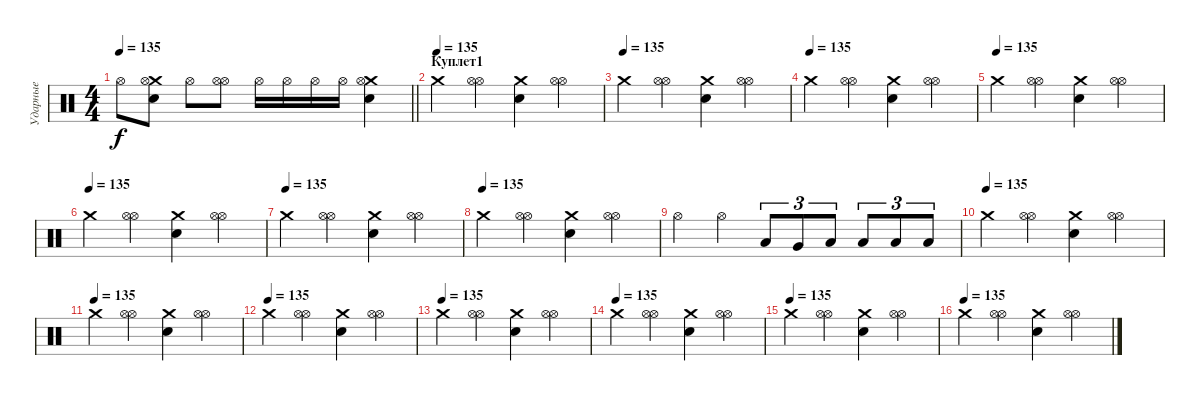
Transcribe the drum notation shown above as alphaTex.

\track ("Ударные" "Ударные") {instrument percussion}
\staff {score}
\articulation defaults
\ts (4 4)
\tempo 135
\clef neutral
\barLineRight lightlight
\ks c "Hi-Hat (open)".8{dy f}
("Crash medium (hit)" "Hi-Hat (open)" "Electric Snare (hit)").8 "Hi-Hat (open)".8 ("Hi-Hat (open)" "Hi-Hat (open)").8 "Hi-Hat (open)".16 "Hi-Hat (open)".16 "Hi-Hat (open)".16 "Hi-Hat (open)".16 ("Crash medium (hit)" "Hi-Hat (open)" "Electric Snare (hit)").4 |
\section ("" "Куплет1")
\tempo (135)
"Crash medium (hit)".4 ("Hi-Hat (open)" "Hi-Hat (open)").4 ("Crash medium (hit)" "Electric Snare (hit)").4 ("Hi-Hat (open)" "Hi-Hat (open)").4 |
\tempo (135)
"Crash medium (hit)".4 ("Hi-Hat (open)" "Hi-Hat (open)").4 ("Crash medium (hit)" "Electric Snare (hit)").4 ("Hi-Hat (open)" "Hi-Hat (open)").4 |
\tempo (135)
"Crash medium (hit)".4 ("Hi-Hat (open)" "Hi-Hat (open)").4 ("Crash medium (hit)" "Electric Snare (hit)").4 ("Hi-Hat (open)" "Hi-Hat (open)").4 |
\tempo (135)
"Crash medium (hit)".4 ("Hi-Hat (open)" "Hi-Hat (open)").4 ("Crash medium (hit)" "Electric Snare (hit)").4 ("Hi-Hat (open)" "Hi-Hat (open)").4 |
\tempo (135)
"Crash medium (hit)".4 ("Hi-Hat (open)" "Hi-Hat (open)").4 ("Crash medium (hit)" "Electric Snare (hit)").4 ("Hi-Hat (open)" "Hi-Hat (open)").4 |
\tempo (135)
"Crash medium (hit)".4 ("Hi-Hat (open)" "Hi-Hat (open)").4 ("Crash medium (hit)" "Electric Snare (hit)").4 ("Hi-Hat (open)" "Hi-Hat (open)").4 |
\tempo (135)
"Crash medium (hit)".4 ("Hi-Hat (open)" "Hi-Hat (open)").4 ("Crash medium (hit)" "Electric Snare (hit)").4 ("Hi-Hat (open)" "Hi-Hat (open)").4 |
"Hi-Hat (open)".4 "Hi-Hat (open)".4 "Low Tom (hit)".8{tu (3 2)} "Very Low Tom (hit)".8{tu (3 2)} "Low Floor Tom (hit)".8{tu (3 2)} "Low Floor Tom (hit)".8{tu (3 2)} "Low Floor Tom (hit)".8{tu (3 2)} "Low Floor Tom (hit)".8{tu (3 2)} |
\tempo (135)
"Crash medium (hit)".4 ("Hi-Hat (open)" "Hi-Hat (open)").4 ("Crash medium (hit)" "Electric Snare (hit)").4 ("Hi-Hat (open)" "Hi-Hat (open)").4 |
\tempo (135)
"Crash medium (hit)".4 ("Hi-Hat (open)" "Hi-Hat (open)").4 ("Crash medium (hit)" "Electric Snare (hit)").4 ("Hi-Hat (open)" "Hi-Hat (open)").4 |
\tempo (135)
"Crash medium (hit)".4 ("Hi-Hat (open)" "Hi-Hat (open)").4 ("Crash medium (hit)" "Electric Snare (hit)").4 ("Hi-Hat (open)" "Hi-Hat (open)").4 |
\tempo (135)
"Crash medium (hit)".4 ("Hi-Hat (open)" "Hi-Hat (open)").4 ("Crash medium (hit)" "Electric Snare (hit)").4 ("Hi-Hat (open)" "Hi-Hat (open)").4 |
\tempo (135)
"Crash medium (hit)".4 ("Hi-Hat (open)" "Hi-Hat (open)").4 ("Crash medium (hit)" "Electric Snare (hit)").4 ("Hi-Hat (open)" "Hi-Hat (open)").4 |
\tempo (135)
"Crash medium (hit)".4 ("Hi-Hat (open)" "Hi-Hat (open)").4 ("Crash medium (hit)" "Electric Snare (hit)").4 ("Hi-Hat (open)" "Hi-Hat (open)").4 |
\tempo (135)
"Crash medium (hit)".4 ("Hi-Hat (open)" "Hi-Hat (open)").4 ("Crash medium (hit)" "Electric Snare (hit)").4 ("Hi-Hat (open)" "Hi-Hat (open)").4
